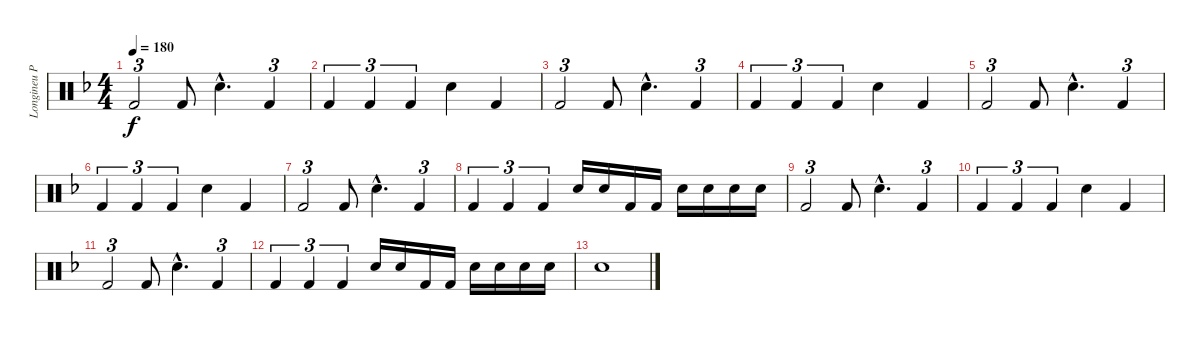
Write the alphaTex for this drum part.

\track ("Longineu Parsons III (Drums 2)" "Longineu P") {instrument percussion}
\staff {score}
\articulation defaults
\ts (4 4)
\tempo 180
\clef neutral
\ks f "Kick (hit) 2".2{tu (3 2) dy f} "Kick (hit) 2".8 "Snare (hit) 2"{hac}.4{d} "Kick (hit) 2".4{tu (3 2)}
|
"Kick (hit) 2".4{tu (3 2)} "Kick (hit) 2".4{tu (3 2)} "Kick (hit) 2".4{tu (3 2)} "Snare (hit) 2".4 "Kick (hit) 2".4 |
"Kick (hit) 2".2{tu (3 2)} "Kick (hit) 2".8 "Snare (hit) 2"{hac}.4{d} "Kick (hit) 2".4{tu (3 2)} |
"Kick (hit) 2".4{tu (3 2)} "Kick (hit) 2".4{tu (3 2)} "Kick (hit) 2".4{tu (3 2)} "Snare (hit) 2".4 "Kick (hit) 2".4 |
"Kick (hit) 2".2{tu (3 2)} "Kick (hit) 2".8 "Snare (hit) 2"{hac}.4{d} "Kick (hit) 2".4{tu (3 2)} |
"Kick (hit) 2".4{tu (3 2)} "Kick (hit) 2".4{tu (3 2)} "Kick (hit) 2".4{tu (3 2)} "Snare (hit) 2".4 "Kick (hit) 2".4 |
"Kick (hit) 2".2{tu (3 2)} "Kick (hit) 2".8 "Snare (hit) 2"{hac}.4{d} "Kick (hit) 2".4{tu (3 2)} |
"Kick (hit) 2".4{tu (3 2)} "Kick (hit) 2".4{tu (3 2)} "Kick (hit) 2".4{tu (3 2)} "Snare (hit) 2".16 "Snare (hit) 2".16 "Kick (hit) 2".16 "Kick (hit) 2".16 "Snare (hit) 2".16 "Snare (hit) 2".16 "Snare (hit) 2".16 "Snare (hit) 2".16 |
"Kick (hit) 2".2{tu (3 2)} "Kick (hit) 2".8 "Snare (hit) 2"{hac}.4{d} "Kick (hit) 2".4{tu (3 2)} |
"Kick (hit) 2".4{tu (3 2)} "Kick (hit) 2".4{tu (3 2)} "Kick (hit) 2".4{tu (3 2)} "Snare (hit) 2".4 "Kick (hit) 2".4 |
"Kick (hit) 2".2{tu (3 2)} "Kick (hit) 2".8 "Snare (hit) 2"{hac}.4{d} "Kick (hit) 2".4{tu (3 2)} |
"Kick (hit) 2".4{tu (3 2)} "Kick (hit) 2".4{tu (3 2)} "Kick (hit) 2".4{tu (3 2)} "Snare (hit) 2".16 "Snare (hit) 2".16 "Kick (hit) 2".16 "Kick (hit) 2".16 "Snare (hit) 2".16 "Snare (hit) 2".16 "Snare (hit) 2".16 "Snare (hit) 2".16 |
"Snare (hit) 2".1
